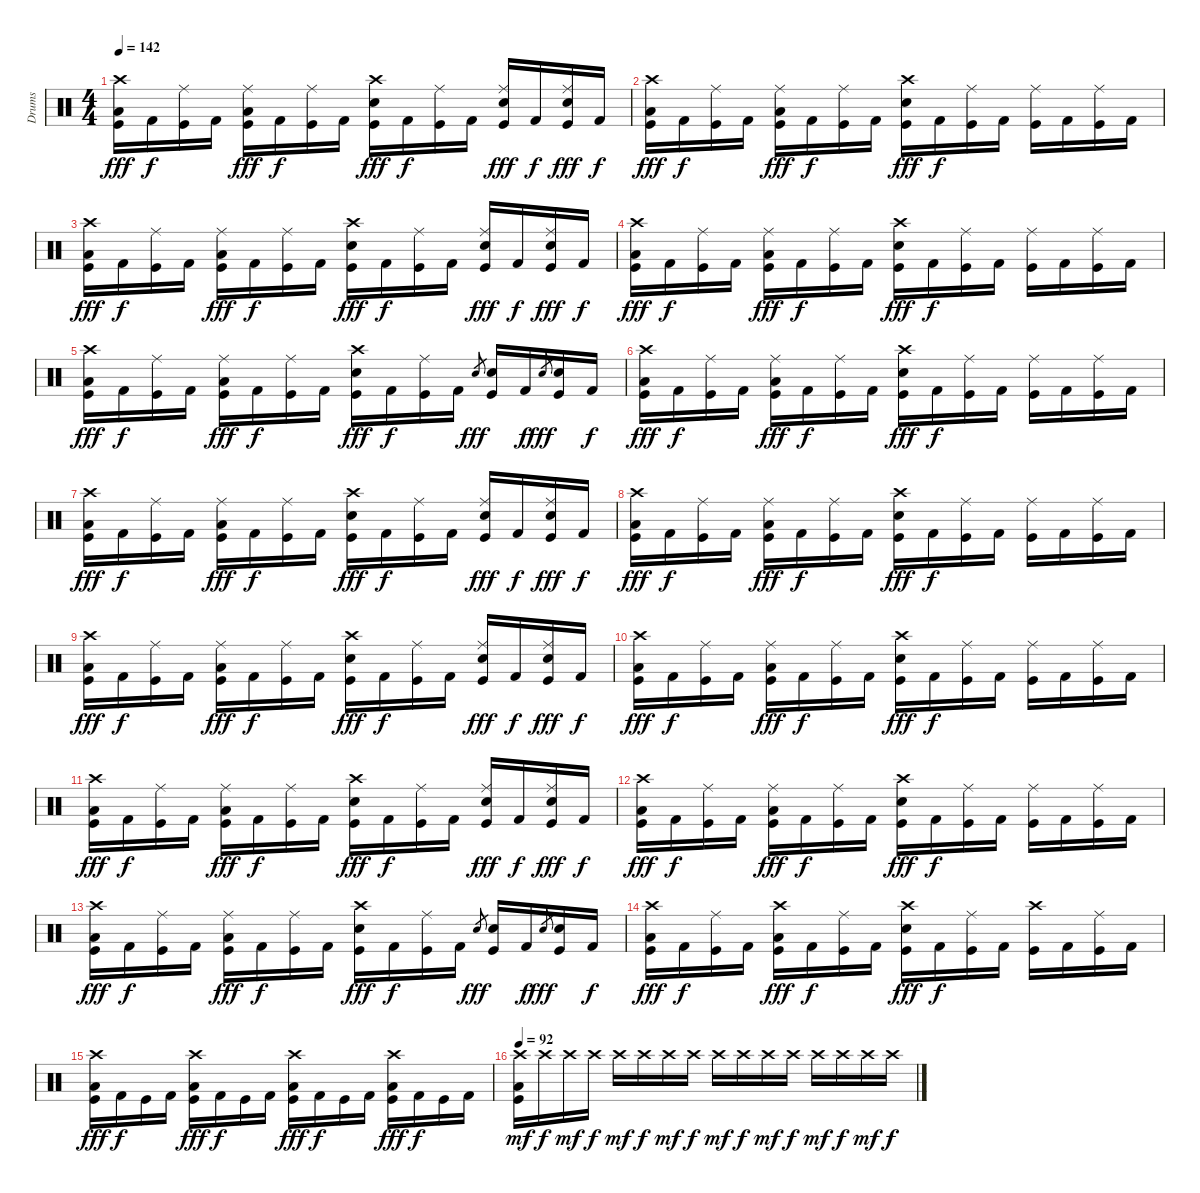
\track ("Drums" "Drums") {instrument percussion}
\staff {score}
\articulation defaults
\ts (4 4)
\tempo 142
\clef neutral
\ks c
("Crash high (hit)" "Low Floor Tom (hit)" "Kick (hit)").16{dy fff} "Kick (hit) 2".16{dy f} ("Ride (middle)" "Kick (hit)").16 "Kick (hit) 2".16 ("Ride (middle)" "Low Floor Tom (hit)" "Kick (hit)").16{dy fff} "Kick (hit) 2".16{dy f} ("Ride (middle)" "Kick (hit)").16 "Kick (hit) 2".16 ("Crash high (hit)" "Electric Snare (hit)" "Kick (hit)").16{dy fff} "Kick (hit) 2".16{dy f} ("Ride (middle)" "Kick (hit)").16 "Kick (hit) 2".16 ("Ride (middle)" "Electric Snare (hit)" "Kick (hit)").16{dy fff} "Kick (hit) 2".16{dy f} ("Ride (middle)" "Electric Snare (hit)" "Kick (hit)").16{dy fff} "Kick (hit) 2".16{dy f} |
("Crash high (hit)" "Low Floor Tom (hit)" "Kick (hit)").16{dy fff} "Kick (hit) 2".16{dy f} ("Ride (middle)" "Kick (hit)").16 "Kick (hit) 2".16 ("Ride (middle)" "Low Floor Tom (hit)" "Kick (hit)").16{dy fff} "Kick (hit) 2".16{dy f} ("Ride (middle)" "Kick (hit)").16 "Kick (hit) 2".16 ("Crash high (hit)" "Electric Snare (hit)" "Kick (hit)").16{dy fff} "Kick (hit) 2".16{dy f} ("Ride (middle)" "Kick (hit)").16 "Kick (hit) 2".16 ("Ride (middle)" "Kick (hit)").16 "Kick (hit) 2".16 ("Ride (middle)" "Kick (hit)").16 "Kick (hit) 2".16 |
("Crash high (hit)" "Low Floor Tom (hit)" "Kick (hit)").16{dy fff} "Kick (hit) 2".16{dy f} ("Ride (middle)" "Kick (hit)").16 "Kick (hit) 2".16 ("Ride (middle)" "Low Floor Tom (hit)" "Kick (hit)").16{dy fff} "Kick (hit) 2".16{dy f} ("Ride (middle)" "Kick (hit)").16 "Kick (hit) 2".16 ("Crash high (hit)" "Electric Snare (hit)" "Kick (hit)").16{dy fff} "Kick (hit) 2".16{dy f} ("Ride (middle)" "Kick (hit)").16 "Kick (hit) 2".16 ("Ride (middle)" "Electric Snare (hit)" "Kick (hit)").16{dy fff} "Kick (hit) 2".16{dy f} ("Ride (middle)" "Electric Snare (hit)" "Kick (hit)").16{dy fff} "Kick (hit) 2".16{dy f} |
("Crash high (hit)" "Low Floor Tom (hit)" "Kick (hit)").16{dy fff} "Kick (hit) 2".16{dy f} ("Ride (middle)" "Kick (hit)").16 "Kick (hit) 2".16 ("Ride (middle)" "Low Floor Tom (hit)" "Kick (hit)").16{dy fff} "Kick (hit) 2".16{dy f} ("Ride (middle)" "Kick (hit)").16 "Kick (hit) 2".16 ("Crash high (hit)" "Electric Snare (hit)" "Kick (hit)").16{dy fff} "Kick (hit) 2".16{dy f} ("Ride (middle)" "Kick (hit)").16 "Kick (hit) 2".16 ("Ride (middle)" "Kick (hit)").16 "Kick (hit) 2".16 ("Ride (middle)" "Kick (hit)").16 "Kick (hit) 2".16 |
("Crash high (hit)" "Low Floor Tom (hit)" "Kick (hit)").16{dy fff} "Kick (hit) 2".16{dy f} ("Ride (middle)" "Kick (hit)").16 "Kick (hit) 2".16 ("Ride (middle)" "Low Floor Tom (hit)" "Kick (hit)").16{dy fff} "Kick (hit) 2".16{dy f} ("Ride (middle)" "Kick (hit)").16 "Kick (hit) 2".16 ("Crash high (hit)" "Electric Snare (hit)" "Kick (hit)").16{dy fff} "Kick (hit) 2".16{dy f} ("Ride (middle)" "Kick (hit)").16 "Kick (hit) 2".16 "Electric Snare (hit)".8{gr dy fff} ("Electric Snare (hit)" "Kick (hit)").16 "Kick (hit) 2".16{dy f} "Electric Snare (hit)".8{gr dy fff} ("Electric Snare (hit)" "Kick (hit)").16 "Kick (hit) 2".16{dy f} |
("Crash high (hit)" "Low Floor Tom (hit)" "Kick (hit)").16{dy fff} "Kick (hit) 2".16{dy f} ("Ride (middle)" "Kick (hit)").16 "Kick (hit) 2".16 ("Ride (middle)" "Low Floor Tom (hit)" "Kick (hit)").16{dy fff} "Kick (hit) 2".16{dy f} ("Ride (middle)" "Kick (hit)").16 "Kick (hit) 2".16 ("Crash high (hit)" "Electric Snare (hit)" "Kick (hit)").16{dy fff} "Kick (hit) 2".16{dy f} ("Ride (middle)" "Kick (hit)").16 "Kick (hit) 2".16 ("Ride (middle)" "Kick (hit)").16 "Kick (hit) 2".16 ("Ride (middle)" "Kick (hit)").16 "Kick (hit) 2".16 |
("Crash high (hit)" "Low Floor Tom (hit)" "Kick (hit)").16{dy fff} "Kick (hit) 2".16{dy f} ("Ride (middle)" "Kick (hit)").16 "Kick (hit) 2".16 ("Ride (middle)" "Low Floor Tom (hit)" "Kick (hit)").16{dy fff} "Kick (hit) 2".16{dy f} ("Ride (middle)" "Kick (hit)").16 "Kick (hit) 2".16 ("Crash high (hit)" "Electric Snare (hit)" "Kick (hit)").16{dy fff} "Kick (hit) 2".16{dy f} ("Ride (middle)" "Kick (hit)").16 "Kick (hit) 2".16 ("Ride (middle)" "Electric Snare (hit)" "Kick (hit)").16{dy fff} "Kick (hit) 2".16{dy f} ("Ride (middle)" "Electric Snare (hit)" "Kick (hit)").16{dy fff} "Kick (hit) 2".16{dy f} |
("Crash high (hit)" "Low Floor Tom (hit)" "Kick (hit)").16{dy fff} "Kick (hit) 2".16{dy f} ("Ride (middle)" "Kick (hit)").16 "Kick (hit) 2".16 ("Ride (middle)" "Low Floor Tom (hit)" "Kick (hit)").16{dy fff} "Kick (hit) 2".16{dy f} ("Ride (middle)" "Kick (hit)").16 "Kick (hit) 2".16 ("Crash high (hit)" "Electric Snare (hit)" "Kick (hit)").16{dy fff} "Kick (hit) 2".16{dy f} ("Ride (middle)" "Kick (hit)").16 "Kick (hit) 2".16 ("Ride (middle)" "Kick (hit)").16 "Kick (hit) 2".16 ("Ride (middle)" "Kick (hit)").16 "Kick (hit) 2".16 |
("Crash high (hit)" "Low Floor Tom (hit)" "Kick (hit)").16{dy fff} "Kick (hit) 2".16{dy f} ("Ride (middle)" "Kick (hit)").16 "Kick (hit) 2".16 ("Ride (middle)" "Low Floor Tom (hit)" "Kick (hit)").16{dy fff} "Kick (hit) 2".16{dy f} ("Ride (middle)" "Kick (hit)").16 "Kick (hit) 2".16 ("Crash high (hit)" "Electric Snare (hit)" "Kick (hit)").16{dy fff} "Kick (hit) 2".16{dy f} ("Ride (middle)" "Kick (hit)").16 "Kick (hit) 2".16 ("Ride (middle)" "Electric Snare (hit)" "Kick (hit)").16{dy fff} "Kick (hit) 2".16{dy f} ("Ride (middle)" "Electric Snare (hit)" "Kick (hit)").16{dy fff} "Kick (hit) 2".16{dy f} |
("Crash high (hit)" "Low Floor Tom (hit)" "Kick (hit)").16{dy fff} "Kick (hit) 2".16{dy f} ("Ride (middle)" "Kick (hit)").16 "Kick (hit) 2".16 ("Ride (middle)" "Low Floor Tom (hit)" "Kick (hit)").16{dy fff} "Kick (hit) 2".16{dy f} ("Ride (middle)" "Kick (hit)").16 "Kick (hit) 2".16 ("Crash high (hit)" "Electric Snare (hit)" "Kick (hit)").16{dy fff} "Kick (hit) 2".16{dy f} ("Ride (middle)" "Kick (hit)").16 "Kick (hit) 2".16 ("Ride (middle)" "Kick (hit)").16 "Kick (hit) 2".16 ("Ride (middle)" "Kick (hit)").16 "Kick (hit) 2".16 |
("Crash high (hit)" "Low Floor Tom (hit)" "Kick (hit)").16{dy fff} "Kick (hit) 2".16{dy f} ("Ride (middle)" "Kick (hit)").16 "Kick (hit) 2".16 ("Ride (middle)" "Low Floor Tom (hit)" "Kick (hit)").16{dy fff} "Kick (hit) 2".16{dy f} ("Ride (middle)" "Kick (hit)").16 "Kick (hit) 2".16 ("Crash high (hit)" "Electric Snare (hit)" "Kick (hit)").16{dy fff} "Kick (hit) 2".16{dy f} ("Ride (middle)" "Kick (hit)").16 "Kick (hit) 2".16 ("Ride (middle)" "Electric Snare (hit)" "Kick (hit)").16{dy fff} "Kick (hit) 2".16{dy f} ("Ride (middle)" "Electric Snare (hit)" "Kick (hit)").16{dy fff} "Kick (hit) 2".16{dy f} |
("Crash high (hit)" "Low Floor Tom (hit)" "Kick (hit)").16{dy fff} "Kick (hit) 2".16{dy f} ("Ride (middle)" "Kick (hit)").16 "Kick (hit) 2".16 ("Ride (middle)" "Low Floor Tom (hit)" "Kick (hit)").16{dy fff} "Kick (hit) 2".16{dy f} ("Ride (middle)" "Kick (hit)").16 "Kick (hit) 2".16 ("Crash high (hit)" "Electric Snare (hit)" "Kick (hit)").16{dy fff} "Kick (hit) 2".16{dy f} ("Ride (middle)" "Kick (hit)").16 "Kick (hit) 2".16 ("Ride (middle)" "Kick (hit)").16 "Kick (hit) 2".16 ("Ride (middle)" "Kick (hit)").16 "Kick (hit) 2".16 |
("Crash high (hit)" "Low Floor Tom (hit)" "Kick (hit)").16{dy fff} "Kick (hit) 2".16{dy f} ("Ride (middle)" "Kick (hit)").16 "Kick (hit) 2".16 ("Ride (middle)" "Low Floor Tom (hit)" "Kick (hit)").16{dy fff} "Kick (hit) 2".16{dy f} ("Ride (middle)" "Kick (hit)").16 "Kick (hit) 2".16 ("Crash high (hit)" "Electric Snare (hit)" "Kick (hit)").16{dy fff} "Kick (hit) 2".16{dy f} ("Ride (middle)" "Kick (hit)").16 "Kick (hit) 2".16 "Electric Snare (hit)".8{gr dy fff} ("Electric Snare (hit)" "Kick (hit)").16 "Kick (hit) 2".16{dy f} "Electric Snare (hit)".8{gr dy fff} ("Electric Snare (hit)" "Kick (hit)").16 "Kick (hit) 2".16{dy f} |
("Crash high (hit)" "Low Floor Tom (hit)" "Kick (hit)").16{dy fff} "Kick (hit) 2".16{dy f} ("Ride (middle)" "Kick (hit)").16 "Kick (hit) 2".16 ("Crash high (hit)" "Low Floor Tom (hit)" "Kick (hit)").16{dy fff} "Kick (hit) 2".16{dy f} ("Ride (middle)" "Kick (hit)").16 "Kick (hit) 2".16 ("Crash high (hit)" "Electric Snare (hit)" "Kick (hit)").16{dy fff} "Kick (hit) 2".16{dy f} ("Ride (middle)" "Kick (hit)").16 "Kick (hit) 2".16 ("Crash high (hit)" "Kick (hit)").16 "Kick (hit) 2".16 ("Ride (middle)" "Kick (hit)").16 "Kick (hit) 2".16 |
("Crash high (hit)" "Low Floor Tom (hit)" "Kick (hit)").16{dy fff} "Kick (hit) 2".16{dy f} "Kick (hit)".16 "Kick (hit) 2".16 ("Crash high (hit)" "Low Floor Tom (hit)" "Kick (hit)").16{dy fff} "Kick (hit) 2".16{dy f} "Kick (hit)".16 "Kick (hit) 2".16 ("Crash high (hit)" "Low Floor Tom (hit)" "Kick (hit)").16{dy fff} "Kick (hit) 2".16{dy f} "Kick (hit)".16 "Kick (hit) 2".16 ("Crash high (hit)" "Low Floor Tom (hit)" "Kick (hit)").16{dy fff} "Kick (hit) 2".16{dy f} "Kick (hit)".16 "Kick (hit) 2".16 |
\tempo 92
("Crash high (hit)" "Low Floor Tom (hit)" "Kick (hit)").16{dy mf} "Crash high (hit)".16{dy f} "Crash high (hit)".16{dy mf} "Crash high (hit)".16{dy f} "Crash high (hit)".16{dy mf} "Crash high (hit)".16{dy f} "Crash high (hit)".16{dy mf} "Crash high (hit)".16{dy f} "Crash high (hit)".16{dy mf} "Crash high (hit)".16{dy f} "Crash high (hit)".16{dy mf} "Crash high (hit)".16{dy f} "Crash high (hit)".16{dy mf} "Crash high (hit)".16{dy f} "Crash high (hit)".16{dy mf} "Crash high (hit)".16{dy f}
